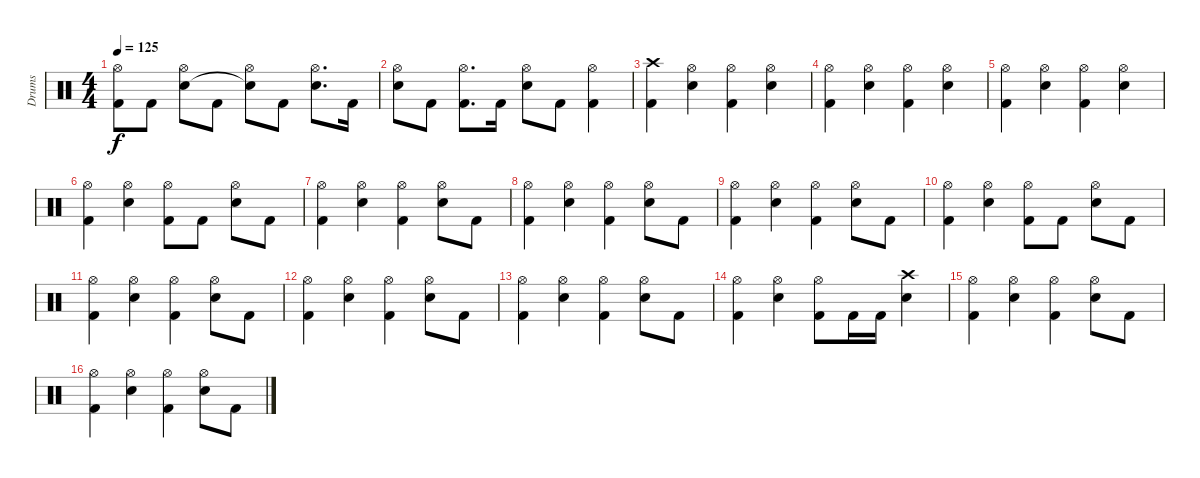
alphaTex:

\track ("Drums" "Drums") {instrument percussion}
\staff {score}
\articulation defaults
\ts (4 4)
\tempo 125
\clef neutral
\ks c
("Hi-Hat (open)" "Kick (hit) 2").8{dy f} "Kick (hit) 2".8 ("Hi-Hat (open)" "Snare (hit) 2").8 "Kick (hit) 2".8 ("Hi-Hat (open)" "Snare (hit)"{t}).8 "Kick (hit) 2".8 ("Hi-Hat (open)" "Snare (hit) 2").8{d} "Kick (hit) 2".16 |
("Hi-Hat (open)" "Snare (hit) 2").8 "Kick (hit) 2".8 ("Hi-Hat (open)" "Kick (hit) 2").8{d} "Kick (hit) 2".16 ("Hi-Hat (open)" "Snare (hit) 2").8 "Kick (hit) 2".8 ("Hi-Hat (open)" "Kick (hit) 2").4 |
("Crash high (hit)" "Kick (hit) 2").4 ("Hi-Hat (open)" "Snare (hit) 2").4 ("Hi-Hat (open)" "Kick (hit) 2").4 ("Hi-Hat (open)" "Snare (hit) 2").4 |
("Hi-Hat (open)" "Kick (hit) 2").4 ("Hi-Hat (open)" "Snare (hit) 2").4 ("Hi-Hat (open)" "Kick (hit) 2").4 ("Hi-Hat (open)" "Snare (hit) 2").4 |
("Hi-Hat (open)" "Kick (hit) 2").4 ("Hi-Hat (open)" "Snare (hit) 2").4 ("Hi-Hat (open)" "Kick (hit) 2").4 ("Hi-Hat (open)" "Snare (hit) 2").4 |
("Hi-Hat (open)" "Kick (hit) 2").4 ("Hi-Hat (open)" "Snare (hit) 2").4 ("Hi-Hat (open)" "Kick (hit) 2").8 "Kick (hit) 2".8 ("Hi-Hat (open)" "Snare (hit) 2").8 "Kick (hit) 2".8 |
("Hi-Hat (open)" "Kick (hit) 2").4 ("Hi-Hat (open)" "Snare (hit) 2").4 ("Hi-Hat (open)" "Kick (hit) 2").4 ("Hi-Hat (open)" "Snare (hit) 2").8 "Kick (hit) 2".8 |
("Hi-Hat (open)" "Kick (hit) 2").4 ("Hi-Hat (open)" "Snare (hit) 2").4 ("Hi-Hat (open)" "Kick (hit) 2").4 ("Hi-Hat (open)" "Snare (hit) 2").8 "Kick (hit) 2".8 |
("Hi-Hat (open)" "Kick (hit) 2").4 ("Hi-Hat (open)" "Snare (hit) 2").4 ("Hi-Hat (open)" "Kick (hit) 2").4 ("Hi-Hat (open)" "Snare (hit) 2").8 "Kick (hit) 2".8 |
("Hi-Hat (open)" "Kick (hit) 2").4 ("Hi-Hat (open)" "Snare (hit) 2").4 ("Hi-Hat (open)" "Kick (hit) 2").8 "Kick (hit) 2".8 ("Hi-Hat (open)" "Snare (hit) 2").8 "Kick (hit) 2".8 |
("Hi-Hat (open)" "Kick (hit) 2").4 ("Hi-Hat (open)" "Snare (hit) 2").4 ("Hi-Hat (open)" "Kick (hit) 2").4 ("Hi-Hat (open)" "Snare (hit) 2").8 "Kick (hit) 2".8 |
("Hi-Hat (open)" "Kick (hit) 2").4 ("Hi-Hat (open)" "Snare (hit) 2").4 ("Hi-Hat (open)" "Kick (hit) 2").4 ("Hi-Hat (open)" "Snare (hit) 2").8 "Kick (hit) 2".8 |
("Hi-Hat (open)" "Kick (hit) 2").4 ("Hi-Hat (open)" "Snare (hit) 2").4 ("Hi-Hat (open)" "Kick (hit) 2").4 ("Hi-Hat (open)" "Snare (hit) 2").8 "Kick (hit) 2".8 |
("Hi-Hat (open)" "Kick (hit) 2").4 ("Hi-Hat (open)" "Snare (hit) 2").4 ("Hi-Hat (open)" "Kick (hit) 2").8 "Kick (hit) 2".16 "Kick (hit) 2".16 ("Crash high (hit)" "Snare (hit) 2").4 |
("Hi-Hat (open)" "Kick (hit) 2").4 ("Hi-Hat (open)" "Snare (hit) 2").4 ("Hi-Hat (open)" "Kick (hit) 2").4 ("Hi-Hat (open)" "Snare (hit) 2").8 "Kick (hit) 2".8 |
("Hi-Hat (open)" "Kick (hit) 2").4 ("Hi-Hat (open)" "Snare (hit) 2").4 ("Hi-Hat (open)" "Kick (hit) 2").4 ("Hi-Hat (open)" "Snare (hit) 2").8 "Kick (hit) 2".8
